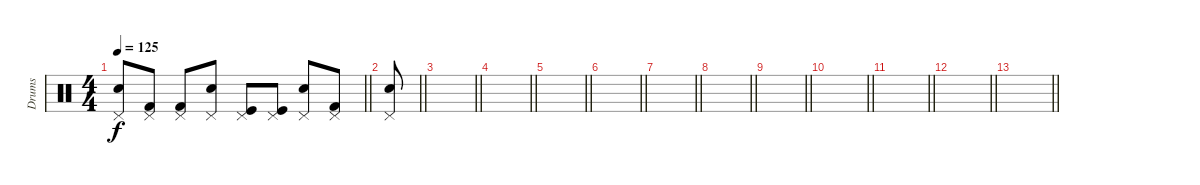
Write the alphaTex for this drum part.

\track ("Drums" "Drums") {instrument percussion}
\staff {score}
\articulation defaults
\ts (4 4)
\tempo 125
\clef neutral
\barLineRight lightlight
\ks c
("Electric Snare (hit)" "Pedal Hi-Hat (hit)").8{dy f} ("Kick (hit) 2" "Pedal Hi-Hat (hit)").8 ("Kick (hit) 2" "Pedal Hi-Hat (hit)").8 ("Electric Snare (hit)" "Pedal Hi-Hat (hit)").8 ("Kick (hit)" "Pedal Hi-Hat (hit)").8 ("Kick (hit)" "Pedal Hi-Hat (hit)").8 ("Electric Snare (hit)" "Pedal Hi-Hat (hit)").8 ("Kick (hit) 2" "Pedal Hi-Hat (hit)").8 |
\section ("" "")
\barLineRight lightlight
("Electric Snare (hit)" "Pedal Hi-Hat (hit)").8 |
\barLineRight lightlight
|
\barLineRight lightlight
|
\barLineRight lightlight
|
\barLineRight lightlight
|
\barLineRight lightlight
|
\barLineRight lightlight
|
\barLineRight lightlight
|
\barLineRight lightlight
|
\barLineRight lightlight
|
\barLineRight lightlight
|
\barLineRight lightlight
